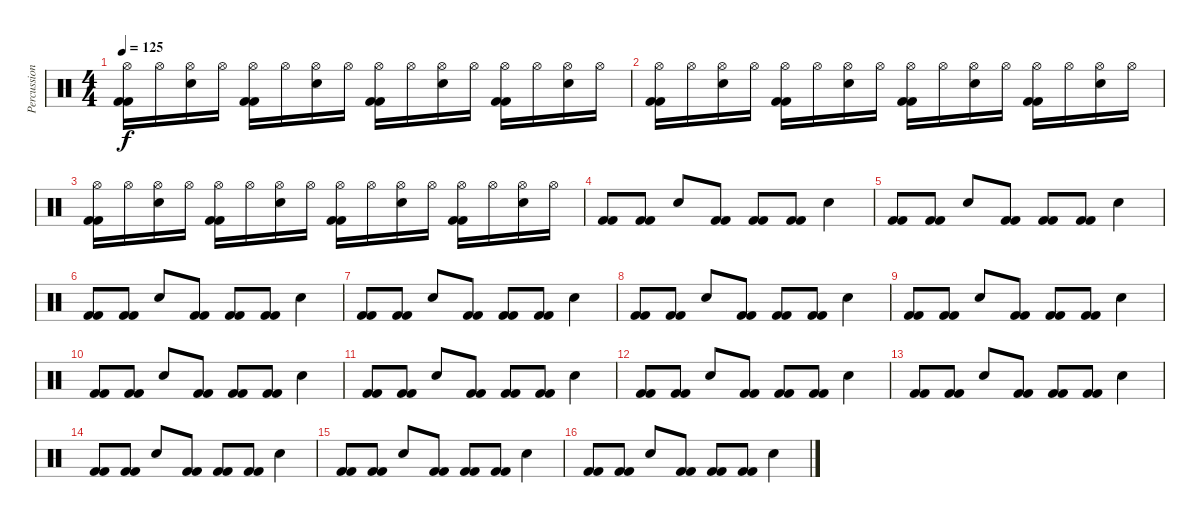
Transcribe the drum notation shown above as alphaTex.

\track ("Percussioni" "Percussion") {instrument percussion}
\staff {score}
\articulation defaults
\ts (4 4)
\tempo 125
\clef neutral
\ks c
("Hi-Hat (open)" "Kick (hit) 2" "Kick (hit) 2").16{dy f} "Hi-Hat (open)".16 ("Hi-Hat (open)" "Electric Snare (hit)").16 "Hi-Hat (open)".16 ("Hi-Hat (open)" "Kick (hit) 2" "Kick (hit) 2").16 "Hi-Hat (open)".16 ("Hi-Hat (open)" "Electric Snare (hit)").16 "Hi-Hat (open)".16 ("Hi-Hat (open)" "Kick (hit) 2" "Kick (hit) 2").16 "Hi-Hat (open)".16 ("Hi-Hat (open)" "Electric Snare (hit)").16 "Hi-Hat (open)".16 ("Hi-Hat (open)" "Kick (hit) 2" "Kick (hit) 2").16 "Hi-Hat (open)".16 ("Hi-Hat (open)" "Electric Snare (hit)").16 "Hi-Hat (open)".16 |
("Hi-Hat (open)" "Kick (hit) 2" "Kick (hit) 2").16 "Hi-Hat (open)".16 ("Hi-Hat (open)" "Electric Snare (hit)").16 "Hi-Hat (open)".16 ("Hi-Hat (open)" "Kick (hit) 2" "Kick (hit) 2").16 "Hi-Hat (open)".16 ("Hi-Hat (open)" "Electric Snare (hit)").16 "Hi-Hat (open)".16 ("Hi-Hat (open)" "Kick (hit) 2" "Kick (hit) 2").16 "Hi-Hat (open)".16 ("Hi-Hat (open)" "Electric Snare (hit)").16 "Hi-Hat (open)".16 ("Hi-Hat (open)" "Kick (hit) 2" "Kick (hit) 2").16 "Hi-Hat (open)".16 ("Hi-Hat (open)" "Electric Snare (hit)").16 "Hi-Hat (open)".16 |
("Hi-Hat (open)" "Kick (hit) 2" "Kick (hit) 2").16 "Hi-Hat (open)".16 ("Hi-Hat (open)" "Electric Snare (hit)").16 "Hi-Hat (open)".16 ("Hi-Hat (open)" "Kick (hit) 2" "Kick (hit) 2").16 "Hi-Hat (open)".16 ("Hi-Hat (open)" "Electric Snare (hit)").16 "Hi-Hat (open)".16 ("Hi-Hat (open)" "Kick (hit) 2" "Kick (hit) 2").16 "Hi-Hat (open)".16 ("Hi-Hat (open)" "Electric Snare (hit)").16 "Hi-Hat (open)".16 ("Hi-Hat (open)" "Kick (hit) 2" "Kick (hit) 2").16 "Hi-Hat (open)".16 ("Hi-Hat (open)" "Electric Snare (hit)").16 "Hi-Hat (open)".16 |
("Kick (hit) 2" "Kick (hit) 2").8 ("Kick (hit) 2" "Kick (hit) 2").8 "Electric Snare (hit)".8 ("Kick (hit) 2" "Kick (hit) 2").8 ("Kick (hit) 2" "Kick (hit) 2").8 ("Kick (hit) 2" "Kick (hit) 2").8 "Electric Snare (hit)".4 |
("Kick (hit) 2" "Kick (hit) 2").8 ("Kick (hit) 2" "Kick (hit) 2").8 "Electric Snare (hit)".8 ("Kick (hit) 2" "Kick (hit) 2").8 ("Kick (hit) 2" "Kick (hit) 2").8 ("Kick (hit) 2" "Kick (hit) 2").8 "Electric Snare (hit)".4 |
("Kick (hit) 2" "Kick (hit) 2").8 ("Kick (hit) 2" "Kick (hit) 2").8 "Electric Snare (hit)".8 ("Kick (hit) 2" "Kick (hit) 2").8 ("Kick (hit) 2" "Kick (hit) 2").8 ("Kick (hit) 2" "Kick (hit) 2").8 "Electric Snare (hit)".4 |
("Kick (hit) 2" "Kick (hit) 2").8 ("Kick (hit) 2" "Kick (hit) 2").8 "Electric Snare (hit)".8 ("Kick (hit) 2" "Kick (hit) 2").8 ("Kick (hit) 2" "Kick (hit) 2").8 ("Kick (hit) 2" "Kick (hit) 2").8 "Electric Snare (hit)".4 |
("Kick (hit) 2" "Kick (hit) 2").8 ("Kick (hit) 2" "Kick (hit) 2").8 "Electric Snare (hit)".8 ("Kick (hit) 2" "Kick (hit) 2").8 ("Kick (hit) 2" "Kick (hit) 2").8 ("Kick (hit) 2" "Kick (hit) 2").8 "Electric Snare (hit)".4 |
("Kick (hit) 2" "Kick (hit) 2").8 ("Kick (hit) 2" "Kick (hit) 2").8 "Electric Snare (hit)".8 ("Kick (hit) 2" "Kick (hit) 2").8 ("Kick (hit) 2" "Kick (hit) 2").8 ("Kick (hit) 2" "Kick (hit) 2").8 "Electric Snare (hit)".4 |
("Kick (hit) 2" "Kick (hit) 2").8 ("Kick (hit) 2" "Kick (hit) 2").8 "Electric Snare (hit)".8 ("Kick (hit) 2" "Kick (hit) 2").8 ("Kick (hit) 2" "Kick (hit) 2").8 ("Kick (hit) 2" "Kick (hit) 2").8 "Electric Snare (hit)".4 |
("Kick (hit) 2" "Kick (hit) 2").8 ("Kick (hit) 2" "Kick (hit) 2").8 "Electric Snare (hit)".8 ("Kick (hit) 2" "Kick (hit) 2").8 ("Kick (hit) 2" "Kick (hit) 2").8 ("Kick (hit) 2" "Kick (hit) 2").8 "Electric Snare (hit)".4 |
("Kick (hit) 2" "Kick (hit) 2").8 ("Kick (hit) 2" "Kick (hit) 2").8 "Electric Snare (hit)".8 ("Kick (hit) 2" "Kick (hit) 2").8 ("Kick (hit) 2" "Kick (hit) 2").8 ("Kick (hit) 2" "Kick (hit) 2").8 "Electric Snare (hit)".4 |
("Kick (hit) 2" "Kick (hit) 2").8 ("Kick (hit) 2" "Kick (hit) 2").8 "Electric Snare (hit)".8 ("Kick (hit) 2" "Kick (hit) 2").8 ("Kick (hit) 2" "Kick (hit) 2").8 ("Kick (hit) 2" "Kick (hit) 2").8 "Electric Snare (hit)".4 |
("Kick (hit) 2" "Kick (hit) 2").8 ("Kick (hit) 2" "Kick (hit) 2").8 "Electric Snare (hit)".8 ("Kick (hit) 2" "Kick (hit) 2").8 ("Kick (hit) 2" "Kick (hit) 2").8 ("Kick (hit) 2" "Kick (hit) 2").8 "Electric Snare (hit)".4 |
("Kick (hit) 2" "Kick (hit) 2").8 ("Kick (hit) 2" "Kick (hit) 2").8 "Electric Snare (hit)".8 ("Kick (hit) 2" "Kick (hit) 2").8 ("Kick (hit) 2" "Kick (hit) 2").8 ("Kick (hit) 2" "Kick (hit) 2").8 "Electric Snare (hit)".4 |
("Kick (hit) 2" "Kick (hit) 2").8 ("Kick (hit) 2" "Kick (hit) 2").8 "Electric Snare (hit)".8 ("Kick (hit) 2" "Kick (hit) 2").8 ("Kick (hit) 2" "Kick (hit) 2").8 ("Kick (hit) 2" "Kick (hit) 2").8 "Electric Snare (hit)".4
